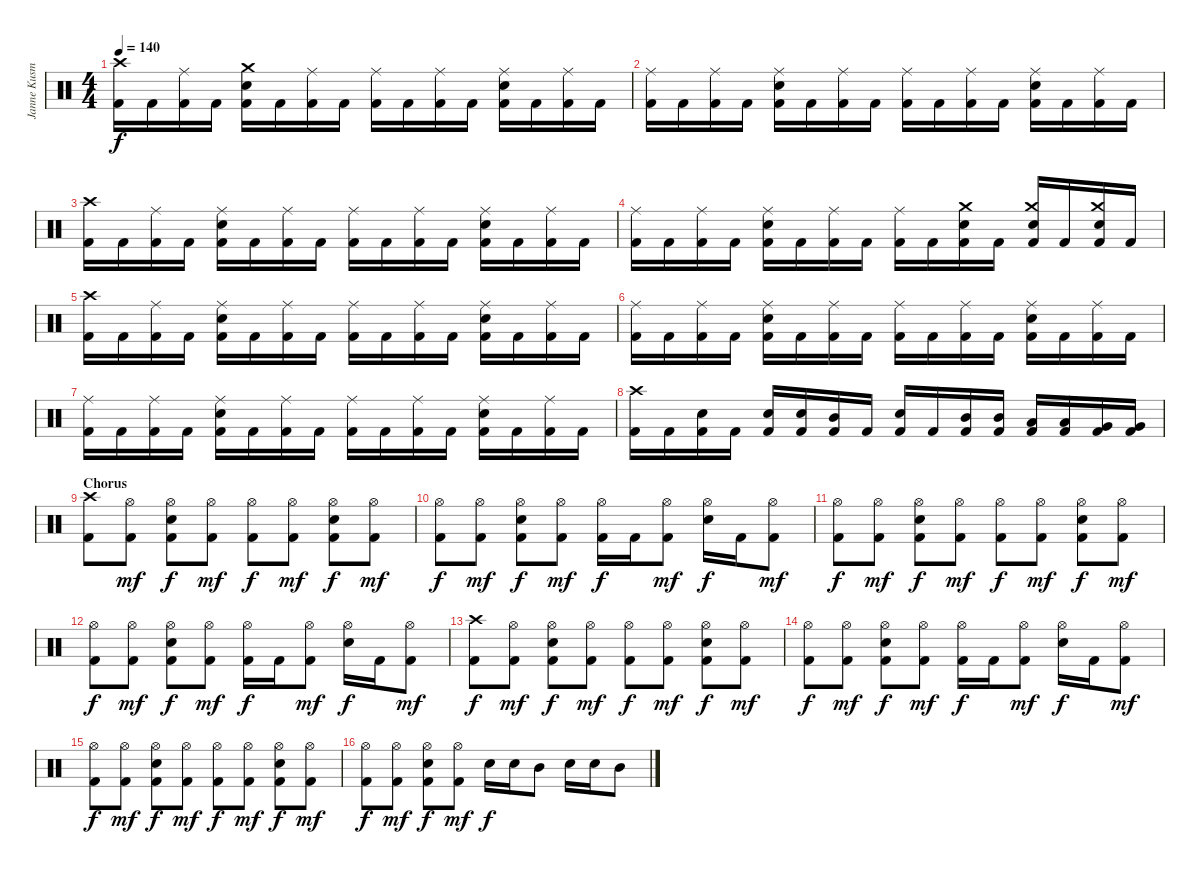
\track ("Janne Kusmin" "Janne Kusm") {instrument percussion}
\staff {score}
\articulation defaults
\ts (4 4)
\tempo 140
\clef neutral
\ks c
("Crash high (hit)" "Kick (hit) 2").16{dy f} "Kick (hit) 2".16 ("Ride (middle)" "Kick (hit) 2").16 "Kick (hit) 2".16 ("Crash medium (hit)" "Electric Snare (hit)" "Kick (hit) 2").16 "Kick (hit) 2".16 ("Ride (middle)" "Kick (hit) 2").16 "Kick (hit) 2".16 ("Ride (middle)" "Kick (hit) 2").16 "Kick (hit) 2".16 ("Ride (middle)" "Kick (hit) 2").16 "Kick (hit) 2".16 ("Ride (middle)" "Electric Snare (hit)" "Kick (hit) 2").16 "Kick (hit) 2".16 ("Ride (middle)" "Kick (hit) 2").16 "Kick (hit) 2".16 |
("Ride (middle)" "Kick (hit) 2").16 "Kick (hit) 2".16 ("Ride (middle)" "Kick (hit) 2").16 "Kick (hit) 2".16 ("Ride (middle)" "Electric Snare (hit)" "Kick (hit) 2").16 "Kick (hit) 2".16 ("Ride (middle)" "Kick (hit) 2").16 "Kick (hit) 2".16 ("Ride (middle)" "Kick (hit) 2").16 "Kick (hit) 2".16 ("Ride (middle)" "Kick (hit) 2").16 "Kick (hit) 2".16 ("Ride (middle)" "Electric Snare (hit)" "Kick (hit) 2").16 "Kick (hit) 2".16 ("Ride (middle)" "Kick (hit) 2").16 "Kick (hit) 2".16 |
("Crash high (hit)" "Kick (hit) 2").16 "Kick (hit) 2".16 ("Ride (middle)" "Kick (hit) 2").16 "Kick (hit) 2".16 ("Ride (middle)" "Electric Snare (hit)" "Kick (hit) 2").16 "Kick (hit) 2".16 ("Ride (middle)" "Kick (hit) 2").16 "Kick (hit) 2".16 ("Ride (middle)" "Kick (hit) 2").16 "Kick (hit) 2".16 ("Ride (middle)" "Kick (hit) 2").16 "Kick (hit) 2".16 ("Ride (middle)" "Electric Snare (hit)" "Kick (hit) 2").16 "Kick (hit) 2".16 ("Ride (middle)" "Kick (hit) 2").16 "Kick (hit) 2".16 |
("Ride (middle)" "Kick (hit) 2").16 "Kick (hit) 2".16 ("Ride (middle)" "Kick (hit) 2").16 "Kick (hit) 2".16 ("Ride (middle)" "Electric Snare (hit)" "Kick (hit) 2").16 "Kick (hit) 2".16 ("Ride (middle)" "Kick (hit) 2").16 "Kick (hit) 2".16 ("Ride (middle)" "Kick (hit) 2").16 "Kick (hit) 2".16 ("Crash medium (hit)" "Electric Snare (hit)" "Kick (hit) 2").16 "Kick (hit) 2".16 ("Crash medium (hit)" "Electric Snare (hit)" "Kick (hit) 2").16 "Kick (hit) 2".16 ("Crash medium (hit)" "Electric Snare (hit)" "Kick (hit) 2").16 "Kick (hit) 2".16 |
("Crash high (hit)" "Kick (hit) 2").16 "Kick (hit) 2".16 ("Ride (middle)" "Kick (hit) 2").16 "Kick (hit) 2".16 ("Ride (middle)" "Electric Snare (hit)" "Kick (hit) 2").16 "Kick (hit) 2".16 ("Ride (middle)" "Kick (hit) 2").16 "Kick (hit) 2".16 ("Ride (middle)" "Kick (hit) 2").16 "Kick (hit) 2".16 ("Ride (middle)" "Kick (hit) 2").16 "Kick (hit) 2".16 ("Ride (middle)" "Electric Snare (hit)" "Kick (hit) 2").16 "Kick (hit) 2".16 ("Ride (middle)" "Kick (hit) 2").16 "Kick (hit) 2".16 |
("Ride (middle)" "Kick (hit) 2").16 "Kick (hit) 2".16 ("Ride (middle)" "Kick (hit) 2").16 "Kick (hit) 2".16 ("Ride (middle)" "Electric Snare (hit)" "Kick (hit) 2").16 "Kick (hit) 2".16 ("Ride (middle)" "Kick (hit) 2").16 "Kick (hit) 2".16 ("Ride (middle)" "Kick (hit) 2").16 "Kick (hit) 2".16 ("Ride (middle)" "Kick (hit) 2").16 "Kick (hit) 2".16 ("Ride (middle)" "Electric Snare (hit)" "Kick (hit) 2").16 "Kick (hit) 2".16 ("Ride (middle)" "Kick (hit) 2").16 "Kick (hit) 2".16 |
("Ride (middle)" "Kick (hit) 2").16 "Kick (hit) 2".16 ("Ride (middle)" "Kick (hit) 2").16 "Kick (hit) 2".16 ("Ride (middle)" "Electric Snare (hit)" "Kick (hit) 2").16 "Kick (hit) 2".16 ("Ride (middle)" "Kick (hit) 2").16 "Kick (hit) 2".16 ("Ride (middle)" "Kick (hit) 2").16 "Kick (hit) 2".16 ("Ride (middle)" "Kick (hit) 2").16 "Kick (hit) 2".16 ("Ride (middle)" "Electric Snare (hit)" "Kick (hit) 2").16 "Kick (hit) 2".16 ("Ride (middle)" "Kick (hit) 2").16 "Kick (hit) 2".16 |
("Crash high (hit)" "Kick (hit) 2").16 "Kick (hit) 2".16 ("Electric Snare (hit)" "Kick (hit) 2").16 "Kick (hit) 2".16 ("Electric Snare (hit)" "Kick (hit) 2").16 ("Electric Snare (hit)" "Kick (hit) 2").16 ("Mid Tom (hit)" "Kick (hit) 2").16 "Kick (hit) 2".16 ("Electric Snare (hit)" "Kick (hit) 2").16 "Kick (hit) 2".16 ("Mid Tom (hit)" "Kick (hit) 2").16 ("Mid Tom (hit)" "Kick (hit) 2").16 ("Low Tom (hit)" "Kick (hit) 2").16 ("Low Tom (hit)" "Kick (hit) 2").16 ("Very Low Tom (hit)" "Kick (hit) 2").16 ("Very Low Tom (hit)" "Kick (hit) 2").16 |
\section ("" "Chorus")
("Crash high (hit)" "Kick (hit) 2").8 ("Hi-Hat (open)" "Kick (hit) 2").8{dy mf} ("Hi-Hat (open)" "Electric Snare (hit)" "Kick (hit) 2").8{dy f} ("Hi-Hat (open)" "Kick (hit) 2").8{dy mf} ("Hi-Hat (open)" "Kick (hit) 2").8{dy f} ("Hi-Hat (open)" "Kick (hit) 2").8{dy mf} ("Hi-Hat (open)" "Electric Snare (hit)" "Kick (hit) 2").8{dy f} ("Hi-Hat (open)" "Kick (hit) 2").8{dy mf} |
("Hi-Hat (open)" "Kick (hit) 2").8{dy f} ("Hi-Hat (open)" "Kick (hit) 2").8{dy mf} ("Hi-Hat (open)" "Electric Snare (hit)" "Kick (hit) 2").8{dy f} ("Hi-Hat (open)" "Kick (hit) 2").8{dy mf} ("Hi-Hat (open)" "Kick (hit) 2").16{dy f} "Kick (hit) 2".16 ("Hi-Hat (open)" "Kick (hit) 2").8{dy mf} ("Hi-Hat (open)" "Electric Snare (hit)").16{dy f} "Kick (hit) 2".16 ("Hi-Hat (open)" "Kick (hit) 2").8{dy mf} |
("Hi-Hat (open)" "Kick (hit) 2").8{dy f} ("Hi-Hat (open)" "Kick (hit) 2").8{dy mf} ("Hi-Hat (open)" "Electric Snare (hit)" "Kick (hit) 2").8{dy f} ("Hi-Hat (open)" "Kick (hit) 2").8{dy mf} ("Hi-Hat (open)" "Kick (hit) 2").8{dy f} ("Hi-Hat (open)" "Kick (hit) 2").8{dy mf} ("Hi-Hat (open)" "Electric Snare (hit)" "Kick (hit) 2").8{dy f} ("Hi-Hat (open)" "Kick (hit) 2").8{dy mf} |
("Hi-Hat (open)" "Kick (hit) 2").8{dy f} ("Hi-Hat (open)" "Kick (hit) 2").8{dy mf} ("Hi-Hat (open)" "Electric Snare (hit)" "Kick (hit) 2").8{dy f} ("Hi-Hat (open)" "Kick (hit) 2").8{dy mf} ("Hi-Hat (open)" "Kick (hit) 2").16{dy f} "Kick (hit) 2".16 ("Hi-Hat (open)" "Kick (hit) 2").8{dy mf} ("Hi-Hat (open)" "Electric Snare (hit)").16{dy f} "Kick (hit) 2".16 ("Hi-Hat (open)" "Kick (hit) 2").8{dy mf} |
("Crash high (hit)" "Kick (hit) 2").8{dy f} ("Hi-Hat (open)" "Kick (hit) 2").8{dy mf} ("Hi-Hat (open)" "Electric Snare (hit)" "Kick (hit) 2").8{dy f} ("Hi-Hat (open)" "Kick (hit) 2").8{dy mf} ("Hi-Hat (open)" "Kick (hit) 2").8{dy f} ("Hi-Hat (open)" "Kick (hit) 2").8{dy mf} ("Hi-Hat (open)" "Electric Snare (hit)" "Kick (hit) 2").8{dy f} ("Hi-Hat (open)" "Kick (hit) 2").8{dy mf} |
("Hi-Hat (open)" "Kick (hit) 2").8{dy f} ("Hi-Hat (open)" "Kick (hit) 2").8{dy mf} ("Hi-Hat (open)" "Electric Snare (hit)" "Kick (hit) 2").8{dy f} ("Hi-Hat (open)" "Kick (hit) 2").8{dy mf} ("Hi-Hat (open)" "Kick (hit) 2").16{dy f} "Kick (hit) 2".16 ("Hi-Hat (open)" "Kick (hit) 2").8{dy mf} ("Hi-Hat (open)" "Electric Snare (hit)").16{dy f} "Kick (hit) 2".16 ("Hi-Hat (open)" "Kick (hit) 2").8{dy mf} |
("Hi-Hat (open)" "Kick (hit) 2").8{dy f} ("Hi-Hat (open)" "Kick (hit) 2").8{dy mf} ("Hi-Hat (open)" "Electric Snare (hit)" "Kick (hit) 2").8{dy f} ("Hi-Hat (open)" "Kick (hit) 2").8{dy mf} ("Hi-Hat (open)" "Kick (hit) 2").8{dy f} ("Hi-Hat (open)" "Kick (hit) 2").8{dy mf} ("Hi-Hat (open)" "Electric Snare (hit)" "Kick (hit) 2").8{dy f} ("Hi-Hat (open)" "Kick (hit) 2").8{dy mf} |
("Hi-Hat (open)" "Kick (hit) 2").8{dy f} ("Hi-Hat (open)" "Kick (hit) 2").8{dy mf} ("Hi-Hat (open)" "Electric Snare (hit)" "Kick (hit) 2").8{dy f} ("Hi-Hat (open)" "Kick (hit) 2").8{dy mf} "Electric Snare (hit)".16{dy f} "Electric Snare (hit)".16 "Mid Tom (hit)".8 "Electric Snare (hit)".16 "Electric Snare (hit)".16 "Mid Tom (hit)".8
